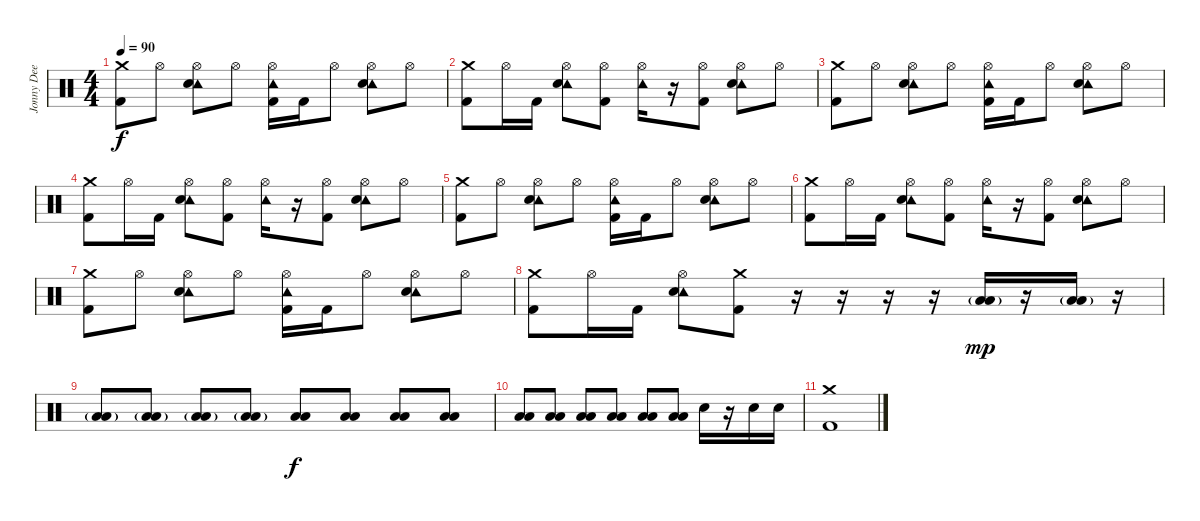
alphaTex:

\track ("Jonny Dee" "Jonny Dee") {instrument percussion}
\staff {score}
\articulation defaults
\ts (4 4)
\tempo 90
\clef neutral
\ks c
("Crash medium (hit)" "Kick (hit) 2").8{dy f} "Hi-Hat (open)".8 ("Tambourine (hit)" "Hi-Hat (open)" "Snare (hit) 2").8 "Hi-Hat (open)".8 ("Tambourine (hit)" "Hi-Hat (open)" "Kick (hit) 2").16 "Kick (hit) 2".16 "Hi-Hat (open)".8 ("Tambourine (hit)" "Hi-Hat (open)" "Snare (hit) 2").8 "Hi-Hat (open)".8 |
("Crash medium (hit)" "Kick (hit) 2").8 "Hi-Hat (open)".16 "Kick (hit) 2".16 ("Tambourine (hit)" "Hi-Hat (open)" "Snare (hit) 2").8 ("Hi-Hat (open)" "Kick (hit) 2").8 ("Tambourine (hit)" "Hi-Hat (open)").16 r.16 ("Hi-Hat (open)" "Kick (hit) 2").8 ("Tambourine (hit)" "Hi-Hat (open)" "Snare (hit) 2").8 "Hi-Hat (open)".8 |
("Crash medium (hit)" "Kick (hit) 2").8 "Hi-Hat (open)".8 ("Tambourine (hit)" "Hi-Hat (open)" "Snare (hit) 2").8 "Hi-Hat (open)".8 ("Tambourine (hit)" "Hi-Hat (open)" "Kick (hit) 2").16 "Kick (hit) 2".16 "Hi-Hat (open)".8 ("Tambourine (hit)" "Hi-Hat (open)" "Snare (hit) 2").8 "Hi-Hat (open)".8 |
("Crash medium (hit)" "Kick (hit) 2").8 "Hi-Hat (open)".16 "Kick (hit) 2".16 ("Tambourine (hit)" "Hi-Hat (open)" "Snare (hit) 2").8 ("Hi-Hat (open)" "Kick (hit) 2").8 ("Tambourine (hit)" "Hi-Hat (open)").16 r.16 ("Hi-Hat (open)" "Kick (hit) 2").8 ("Tambourine (hit)" "Hi-Hat (open)" "Snare (hit) 2").8 "Hi-Hat (open)".8 |
("Crash medium (hit)" "Kick (hit) 2").8 "Hi-Hat (open)".8 ("Tambourine (hit)" "Hi-Hat (open)" "Snare (hit) 2").8 "Hi-Hat (open)".8 ("Tambourine (hit)" "Hi-Hat (open)" "Kick (hit) 2").16 "Kick (hit) 2".16 "Hi-Hat (open)".8 ("Tambourine (hit)" "Hi-Hat (open)" "Snare (hit) 2").8 "Hi-Hat (open)".8 |
("Crash medium (hit)" "Kick (hit) 2").8 "Hi-Hat (open)".16 "Kick (hit) 2".16 ("Tambourine (hit)" "Hi-Hat (open)" "Snare (hit) 2").8 ("Hi-Hat (open)" "Kick (hit) 2").8 ("Tambourine (hit)" "Hi-Hat (open)").16 r.16 ("Hi-Hat (open)" "Kick (hit) 2").8 ("Tambourine (hit)" "Hi-Hat (open)" "Snare (hit) 2").8 "Hi-Hat (open)".8 |
("Crash medium (hit)" "Kick (hit) 2").8 "Hi-Hat (open)".8 ("Tambourine (hit)" "Hi-Hat (open)" "Snare (hit) 2").8 "Hi-Hat (open)".8 ("Tambourine (hit)" "Hi-Hat (open)" "Kick (hit) 2").16 "Kick (hit) 2".16 "Hi-Hat (open)".8 ("Tambourine (hit)" "Hi-Hat (open)" "Snare (hit) 2").8 "Hi-Hat (open)".8 |
("Crash medium (hit)" "Kick (hit) 2").8 "Hi-Hat (open)".16 "Kick (hit) 2".16 ("Tambourine (hit)" "Hi-Hat (open)" "Snare (hit) 2").8 ("Crash medium (hit)" "Kick (hit) 2").8 r.16 r.16 r.16 r.16 ("Low Tom (hit)"{g} "Low Floor Tom (hit)"{g}).16{dy mp} r.16 ("Low Tom (hit)"{g} "Low Floor Tom (hit)"{g}).16 r.16 |
("Low Tom (hit)"{g} "Low Floor Tom (hit)"{g}).8 ("Low Tom (hit)"{g} "Low Floor Tom (hit)"{g}).8 ("Low Tom (hit)"{g} "Low Floor Tom (hit)"{g}).8 ("Low Tom (hit)"{g} "Low Floor Tom (hit)"{g}).8 ("Low Tom (hit)" "Low Floor Tom (hit)").8{dy f} ("Low Tom (hit)" "Low Floor Tom (hit)").8 ("Low Tom (hit)" "Low Floor Tom (hit)").8 ("Low Tom (hit)" "Low Floor Tom (hit)").8 |
("Low Tom (hit)" "Low Floor Tom (hit)").8 ("Low Tom (hit)" "Low Floor Tom (hit)").8 ("Low Tom (hit)" "Low Floor Tom (hit)").8 ("Low Tom (hit)" "Low Floor Tom (hit)").8 ("Low Tom (hit)" "Low Floor Tom (hit)").8 ("Low Tom (hit)" "Low Floor Tom (hit)").8 "Snare (hit) 2".16 r.16 "Snare (hit) 2".16 "Snare (hit) 2".16 |
("Crash medium (hit)" "Kick (hit) 2").1
